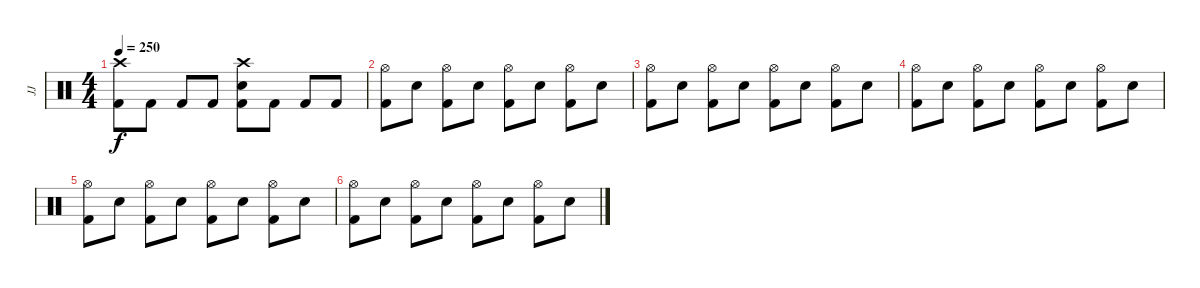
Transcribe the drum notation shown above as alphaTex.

\track ("JJ" "JJ") {instrument percussion}
\staff {score}
\articulation defaults
\ts (4 4)
\tempo 250
\clef neutral
\ks c
("Crash high (hit)" "Kick (hit) 2").8{dy f} "Kick (hit) 2".8 "Kick (hit) 2".8 "Kick (hit) 2".8 ("Crash high (hit)" "Electric Snare (hit)" "Kick (hit) 2").8 "Kick (hit) 2".8 "Kick (hit) 2".8 "Kick (hit) 2".8 |
("Hi-Hat (open)" "Kick (hit) 2").8 "Electric Snare (hit)".8 ("Hi-Hat (open)" "Kick (hit) 2").8 "Electric Snare (hit)".8 ("Hi-Hat (open)" "Kick (hit) 2").8 "Electric Snare (hit)".8 ("Hi-Hat (open)" "Kick (hit) 2").8 "Electric Snare (hit)".8 |
("Hi-Hat (open)" "Kick (hit) 2").8 "Electric Snare (hit)".8 ("Hi-Hat (open)" "Kick (hit) 2").8 "Electric Snare (hit)".8 ("Hi-Hat (open)" "Kick (hit) 2").8 "Electric Snare (hit)".8 ("Hi-Hat (open)" "Kick (hit) 2").8 "Electric Snare (hit)".8 |
("Hi-Hat (open)" "Kick (hit) 2").8 "Electric Snare (hit)".8 ("Hi-Hat (open)" "Kick (hit) 2").8 "Electric Snare (hit)".8 ("Hi-Hat (open)" "Kick (hit) 2").8 "Electric Snare (hit)".8 ("Hi-Hat (open)" "Kick (hit) 2").8 "Electric Snare (hit)".8 |
("Hi-Hat (open)" "Kick (hit) 2").8 "Electric Snare (hit)".8 ("Hi-Hat (open)" "Kick (hit) 2").8 "Electric Snare (hit)".8 ("Hi-Hat (open)" "Kick (hit) 2").8 "Electric Snare (hit)".8 ("Hi-Hat (open)" "Kick (hit) 2").8 "Electric Snare (hit)".8 |
("Hi-Hat (open)" "Kick (hit) 2").8 "Electric Snare (hit)".8 ("Hi-Hat (open)" "Kick (hit) 2").8 "Electric Snare (hit)".8 ("Hi-Hat (open)" "Kick (hit) 2").8 "Electric Snare (hit)".8 ("Hi-Hat (open)" "Kick (hit) 2").8 "Electric Snare (hit)".8
